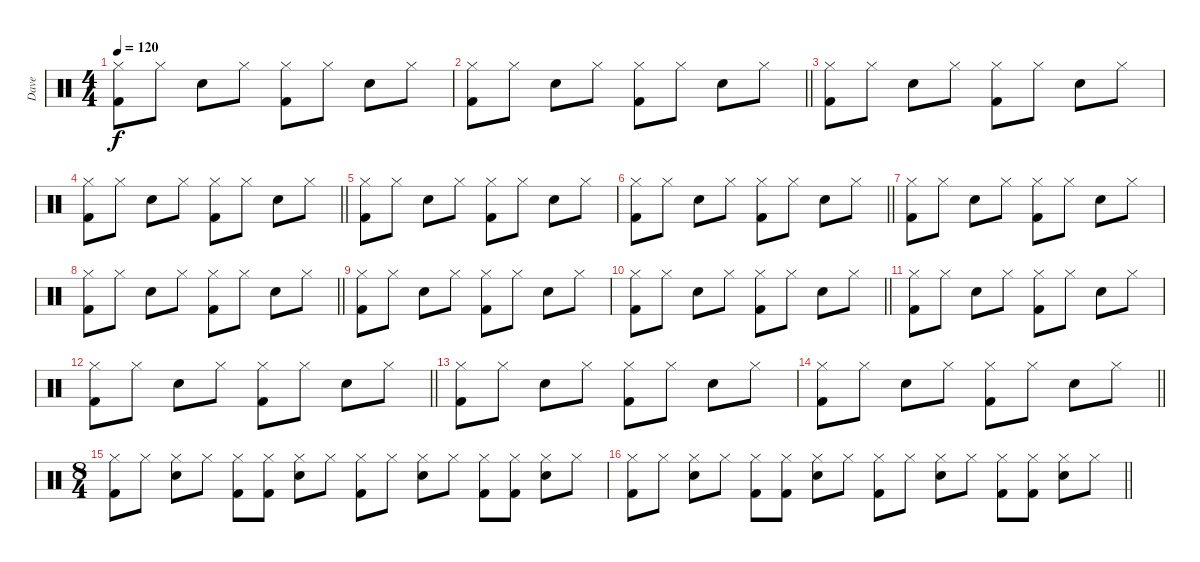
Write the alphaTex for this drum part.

\track ("Dave" "Dave") {instrument percussion}
\staff {score}
\articulation defaults
\ts (4 4)
\tempo 120
\clef neutral
\ks c
("Hi-Hat (closed)" "Kick (hit) 2").8{dy f} "Hi-Hat (closed)".8 "Snare (hit) 2".8 "Hi-Hat (closed)".8 ("Hi-Hat (closed)" "Kick (hit) 2").8 "Hi-Hat (closed)".8 "Snare (hit) 2".8 "Hi-Hat (closed)".8 |
\barLineRight lightlight
("Hi-Hat (closed)" "Kick (hit) 2").8 "Hi-Hat (closed)".8 "Snare (hit) 2".8 "Hi-Hat (closed)".8 ("Hi-Hat (closed)" "Kick (hit) 2").8 "Hi-Hat (closed)".8 "Snare (hit) 2".8 "Hi-Hat (closed)".8 |
("Hi-Hat (closed)" "Kick (hit) 2").8 "Hi-Hat (closed)".8 "Snare (hit) 2".8 "Hi-Hat (closed)".8 ("Hi-Hat (closed)" "Kick (hit) 2").8 "Hi-Hat (closed)".8 "Snare (hit) 2".8 "Hi-Hat (closed)".8 |
\barLineRight lightlight
("Hi-Hat (closed)" "Kick (hit) 2").8 "Hi-Hat (closed)".8 "Snare (hit) 2".8 "Hi-Hat (closed)".8 ("Hi-Hat (closed)" "Kick (hit) 2").8 "Hi-Hat (closed)".8 "Snare (hit) 2".8 "Hi-Hat (closed)".8 |
("Hi-Hat (closed)" "Kick (hit) 2").8 "Hi-Hat (closed)".8 "Snare (hit) 2".8 "Hi-Hat (closed)".8 ("Hi-Hat (closed)" "Kick (hit) 2").8 "Hi-Hat (closed)".8 "Snare (hit) 2".8 "Hi-Hat (closed)".8 |
\barLineRight lightlight
("Hi-Hat (closed)" "Kick (hit) 2").8 "Hi-Hat (closed)".8 "Snare (hit) 2".8 "Hi-Hat (closed)".8 ("Hi-Hat (closed)" "Kick (hit) 2").8 "Hi-Hat (closed)".8 "Snare (hit) 2".8 "Hi-Hat (closed)".8 |
("Hi-Hat (closed)" "Kick (hit) 2").8 "Hi-Hat (closed)".8 "Snare (hit) 2".8 "Hi-Hat (closed)".8 ("Hi-Hat (closed)" "Kick (hit) 2").8 "Hi-Hat (closed)".8 "Snare (hit) 2".8 "Hi-Hat (closed)".8 |
\barLineRight lightlight
("Hi-Hat (closed)" "Kick (hit) 2").8 "Hi-Hat (closed)".8 "Snare (hit) 2".8 "Hi-Hat (closed)".8 ("Hi-Hat (closed)" "Kick (hit) 2").8 "Hi-Hat (closed)".8 "Snare (hit) 2".8 "Hi-Hat (closed)".8 |
("Hi-Hat (closed)" "Kick (hit) 2").8 "Hi-Hat (closed)".8 "Snare (hit) 2".8 "Hi-Hat (closed)".8 ("Hi-Hat (closed)" "Kick (hit) 2").8 "Hi-Hat (closed)".8 "Snare (hit) 2".8 "Hi-Hat (closed)".8 |
\barLineRight lightlight
("Hi-Hat (closed)" "Kick (hit) 2").8 "Hi-Hat (closed)".8 "Snare (hit) 2".8 "Hi-Hat (closed)".8 ("Hi-Hat (closed)" "Kick (hit) 2").8 "Hi-Hat (closed)".8 "Snare (hit) 2".8 "Hi-Hat (closed)".8 |
("Hi-Hat (closed)" "Kick (hit) 2").8 "Hi-Hat (closed)".8 "Snare (hit) 2".8 "Hi-Hat (closed)".8 ("Hi-Hat (closed)" "Kick (hit) 2").8 "Hi-Hat (closed)".8 "Snare (hit) 2".8 "Hi-Hat (closed)".8 |
\barLineRight lightlight
("Hi-Hat (closed)" "Kick (hit) 2").8 "Hi-Hat (closed)".8 "Snare (hit) 2".8 "Hi-Hat (closed)".8 ("Hi-Hat (closed)" "Kick (hit) 2").8 "Hi-Hat (closed)".8 "Snare (hit) 2".8 "Hi-Hat (closed)".8 |
("Hi-Hat (closed)" "Kick (hit) 2").8 "Hi-Hat (closed)".8 "Snare (hit) 2".8 "Hi-Hat (closed)".8 ("Hi-Hat (closed)" "Kick (hit) 2").8 "Hi-Hat (closed)".8 "Snare (hit) 2".8 "Hi-Hat (closed)".8 |
\barLineRight lightlight
("Hi-Hat (closed)" "Kick (hit) 2").8 "Hi-Hat (closed)".8 "Snare (hit) 2".8 "Hi-Hat (closed)".8 ("Hi-Hat (closed)" "Kick (hit) 2").8 "Hi-Hat (closed)".8 "Snare (hit) 2".8 "Hi-Hat (closed)".8 |
\ts (8 4)
("Hi-Hat (closed)" "Kick (hit) 2").8 "Hi-Hat (closed)".8 ("Hi-Hat (closed)" "Snare (hit) 2").8 "Hi-Hat (closed)".8 ("Hi-Hat (closed)" "Kick (hit) 2").8 ("Hi-Hat (closed)" "Kick (hit) 2").8 ("Hi-Hat (closed)" "Snare (hit) 2").8 "Hi-Hat (closed)".8 ("Hi-Hat (closed)" "Kick (hit) 2").8 "Hi-Hat (closed)".8 ("Hi-Hat (closed)" "Snare (hit) 2").8 "Hi-Hat (closed)".8 ("Hi-Hat (closed)" "Kick (hit) 2").8 ("Hi-Hat (closed)" "Kick (hit) 2").8 ("Hi-Hat (closed)" "Snare (hit) 2").8 "Hi-Hat (closed)".8 |
\barLineRight lightlight
("Hi-Hat (closed)" "Kick (hit) 2").8 "Hi-Hat (closed)".8 ("Hi-Hat (closed)" "Snare (hit) 2").8 "Hi-Hat (closed)".8 ("Hi-Hat (closed)" "Kick (hit) 2").8 ("Hi-Hat (closed)" "Kick (hit) 2").8 ("Hi-Hat (closed)" "Snare (hit) 2").8 "Hi-Hat (closed)".8 ("Hi-Hat (closed)" "Kick (hit) 2").8 "Hi-Hat (closed)".8 ("Hi-Hat (closed)" "Snare (hit) 2").8 "Hi-Hat (closed)".8 ("Hi-Hat (closed)" "Kick (hit) 2").8 ("Hi-Hat (closed)" "Kick (hit) 2").8 ("Hi-Hat (closed)" "Snare (hit) 2").8 "Hi-Hat (closed)".8
